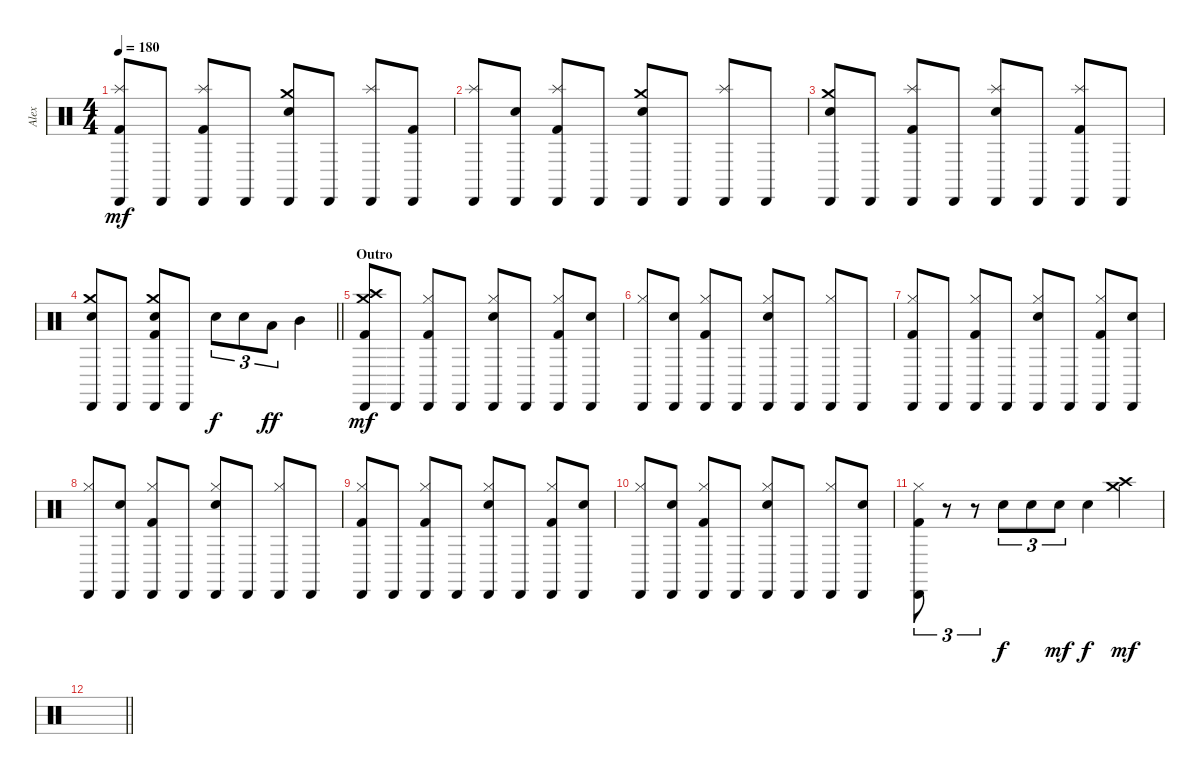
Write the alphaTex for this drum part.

\track ("Alex" "Alex") {instrument percussion}
\staff {score}
\articulation defaults
\ts (4 4)
\tempo 180
\clef neutral
\ks c
("Splash (hit)" "Kick (hit) 2" "Cabasa (hit)").8{dy mf} "Cabasa (hit)".8 ("Splash (hit)" "Kick (hit) 2" "Cabasa (hit)").8 "Cabasa (hit)".8 ("Crash medium (hit)" "Snare (hit) 2" "Cabasa (hit)").8 "Cabasa (hit)".8 ("Splash (hit)" "Cabasa (hit)").8 ("Kick (hit) 2" "Cabasa (hit)").8 |
("Splash (hit)" "Cabasa (hit)").8 ("Snare (hit) 2" "Cabasa (hit)").8 ("Splash (hit)" "Kick (hit) 2" "Cabasa (hit)").8 "Cabasa (hit)".8 ("Crash medium (hit)" "Snare (hit) 2" "Cabasa (hit)").8 "Cabasa (hit)".8 ("Splash (hit)" "Cabasa (hit)").8 "Cabasa (hit)".8 |
("Crash medium (hit)" "Snare (hit) 2" "Cabasa (hit)").8 "Cabasa (hit)".8 ("Splash (hit)" "Kick (hit) 2" "Cabasa (hit)").8 "Cabasa (hit)".8 ("Splash (hit)" "Snare (hit) 2" "Cabasa (hit)").8 "Cabasa (hit)".8 ("Splash (hit)" "Kick (hit) 2" "Cabasa (hit)").8 "Cabasa (hit)".8 |
\barLineRight lightlight
("Crash medium (hit)" "Snare (hit) 2" "Cabasa (hit)").8 "Cabasa (hit)".8 ("Crash medium (hit)" "Snare (hit) 2" "Kick (hit) 2" "Cabasa (hit)").8 "Cabasa (hit)".8 "Snare (hit) 2".8{tu (3 2) dy f} "Snare (hit) 2".8{tu (3 2)} "Low Tom (hit)".8{tu (3 2) dy ff} "Mid Tom (hit)".4 |
\section ("" "Outro")
("Crash high (hit)" "Crash medium (hit)" "Kick (hit) 2" "Cabasa (hit)").8{dy mf} "Cabasa (hit)".8 ("Hi-Hat (closed)" "Kick (hit) 2" "Cabasa (hit)").8 "Cabasa (hit)".8 ("Hi-Hat (closed)" "Snare (hit) 2" "Cabasa (hit)").8 "Cabasa (hit)".8 ("Hi-Hat (closed)" "Kick (hit) 2" "Cabasa (hit)").8 ("Snare (hit) 2" "Cabasa (hit)").8 |
("Hi-Hat (closed)" "Cabasa (hit)").8 ("Snare (hit) 2" "Cabasa (hit)").8 ("Hi-Hat (closed)" "Kick (hit) 2" "Cabasa (hit)").8 "Cabasa (hit)".8 ("Hi-Hat (closed)" "Snare (hit) 2" "Cabasa (hit)").8 "Cabasa (hit)".8 ("Hi-Hat (closed)" "Cabasa (hit)").8 "Cabasa (hit)".8 |
("Hi-Hat (closed)" "Kick (hit) 2" "Cabasa (hit)").8 "Cabasa (hit)".8 ("Hi-Hat (closed)" "Kick (hit) 2" "Cabasa (hit)").8 "Cabasa (hit)".8 ("Hi-Hat (closed)" "Snare (hit) 2" "Cabasa (hit)").8 "Cabasa (hit)".8 ("Hi-Hat (closed)" "Kick (hit) 2" "Cabasa (hit)").8 ("Snare (hit) 2" "Cabasa (hit)").8 |
("Hi-Hat (closed)" "Cabasa (hit)").8 ("Snare (hit) 2" "Cabasa (hit)").8 ("Hi-Hat (closed)" "Kick (hit) 2" "Cabasa (hit)").8 "Cabasa (hit)".8 ("Hi-Hat (closed)" "Snare (hit) 2" "Cabasa (hit)").8 "Cabasa (hit)".8 ("Hi-Hat (closed)" "Cabasa (hit)").8 "Cabasa (hit)".8 |
("Hi-Hat (closed)" "Kick (hit) 2" "Cabasa (hit)").8 "Cabasa (hit)".8 ("Hi-Hat (closed)" "Kick (hit) 2" "Cabasa (hit)").8 "Cabasa (hit)".8 ("Hi-Hat (closed)" "Snare (hit) 2" "Cabasa (hit)").8 "Cabasa (hit)".8 ("Hi-Hat (closed)" "Kick (hit) 2" "Cabasa (hit)").8 ("Snare (hit) 2" "Cabasa (hit)").8 |
("Hi-Hat (closed)" "Cabasa (hit)").8 ("Snare (hit) 2" "Cabasa (hit)").8 ("Hi-Hat (closed)" "Kick (hit) 2" "Cabasa (hit)").8 "Cabasa (hit)".8 ("Hi-Hat (closed)" "Snare (hit) 2" "Cabasa (hit)").8 "Cabasa (hit)".8 ("Hi-Hat (closed)" "Cabasa (hit)").8 ("Snare (hit) 2" "Cabasa (hit)").8 |
("Hi-Hat (closed)" "Kick (hit) 2" "Cabasa (hit)").8{tu (3 2)} r.8{tu (3 2)} r.8{tu (3 2)} "Snare (hit) 2".8{tu (3 2) dy f} "Snare (hit) 2".8{tu (3 2)} "Snare (hit) 2".8{tu (3 2) dy mf} "Snare (hit) 2".4{dy f} ("Crash high (hit)" "Crash medium (hit)").4{dy mf} |
\barLineRight lightlight
